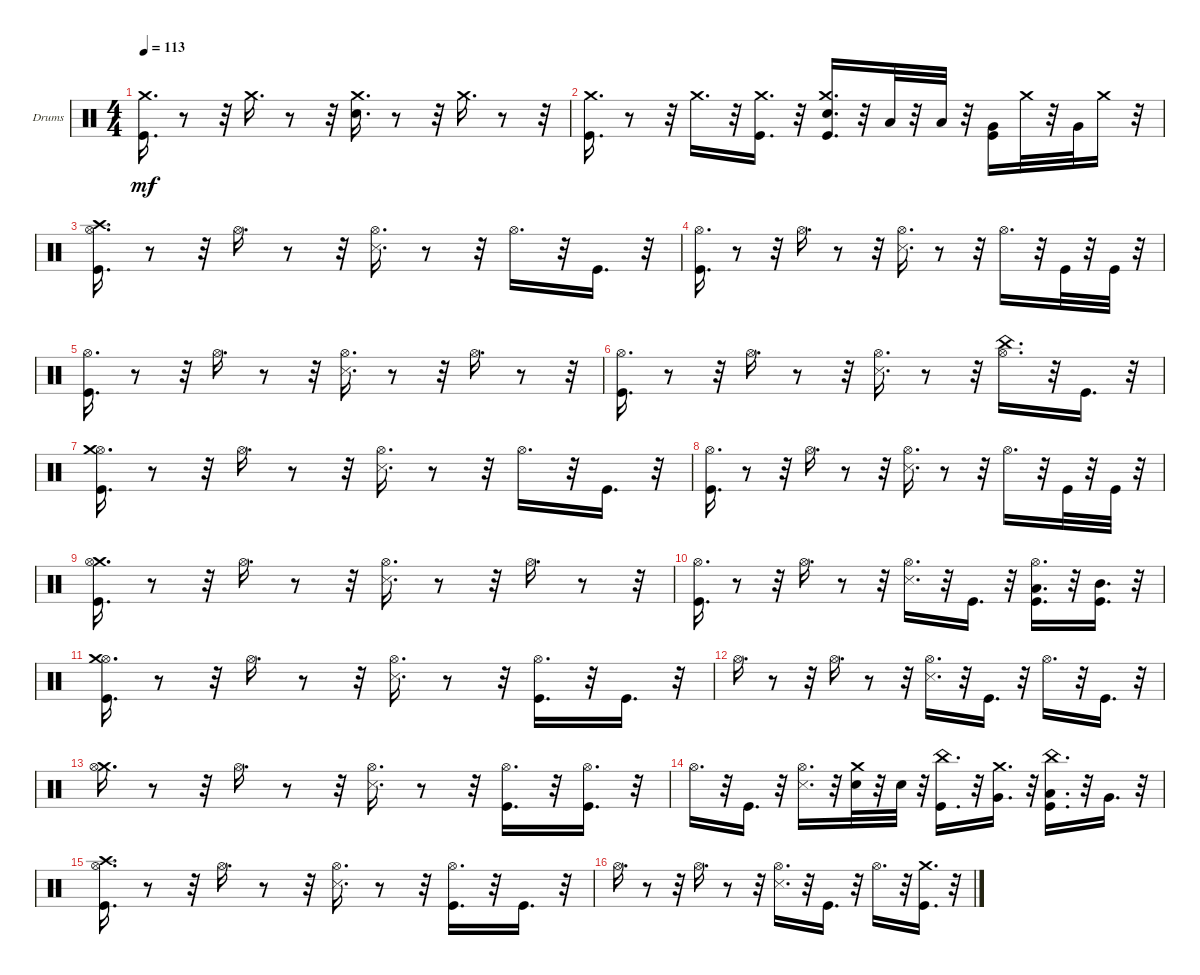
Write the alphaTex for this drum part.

\bracketExtendMode groupsimilarinstruments
\firstSystemTrackNameOrientation horizontal
\otherSystemsTrackNameOrientation horizontal
\track ("Drumkit" "Drums") {instrument percussion}
\staff {score}
\articulation defaults
\ts (4 4)
\tempo 113
\clef neutral
\ks c
("Kick (hit)" "Crash medium (hit)").16{d dy mf} r.8 r.32 "Crash medium (hit)".16{d} r.8 r.32 ("Snare (hit) 2" "Crash medium (hit)").16{d} r.8 r.32 "Crash medium (hit)".16{d} r.8 r.32 |
("Kick (hit)" "Crash medium (hit)").16{d} r.8 r.32 "Crash medium (hit)".16{d} r.32 ("Kick (hit)" "Crash medium (hit)").16{d} r.32 ("Snare (hit) 2" "Kick (hit)" "Crash medium (hit)").16{d} r.32 "Low Tom (hit)".32 r.32 "Low Tom (hit)".32 r.32 ("Very Low Tom (hit)" "Kick (hit)").16 "Crash medium (hit)".32 r.32 "Very Low Tom (hit)".32 "Crash medium (hit)".16 r.32 |
("Crash high (hit)" "Hi-Hat (open)" "Kick (hit)").16{d} r.8 r.32 "Hi-Hat (open)".16{d} r.8 r.32 ("Hi-Hat (open)" "Snare (side stick) 3").16{d} r.8 r.32 "Hi-Hat (open)".16{d} r.32 "Kick (hit)".16{d} r.32 |
("Hi-Hat (open)" "Kick (hit)").16{d} r.8 r.32 "Hi-Hat (open)".16{d} r.8 r.32 ("Hi-Hat (open)" "Snare (side stick) 3").16{d} r.8 r.32 "Hi-Hat (open)".16{d} r.32 "Kick (hit)".32 r.32 "Kick (hit)".32 r.32 |
("Hi-Hat (open)" "Kick (hit)").16{d} r.8 r.32 "Hi-Hat (open)".16{d} r.8 r.32 ("Hi-Hat (open)" "Snare (side stick) 3").16{d} r.8 r.32 "Hi-Hat (open)".16{d} r.8 r.32 |
("Hi-Hat (open)" "Kick (hit)").16{d} r.8 r.32 "Hi-Hat (open)".16{d} r.8 r.32 ("Hi-Hat (open)" "Snare (side stick) 3").16{d} r.8 r.32 ("China (hit)" "Hi-Hat (open)").16{d} r.32 "Kick (hit)".16{d} r.32 |
("Hi-Hat (open)" "Kick (hit)" "Crash medium (hit)").16{d} r.8 r.32 "Hi-Hat (open)".16{d} r.8 r.32 ("Hi-Hat (open)" "Snare (side stick) 3").16{d} r.8 r.32 "Hi-Hat (open)".16{d} r.32 "Kick (hit)".16{d} r.32 |
("Hi-Hat (open)" "Kick (hit)").16{d} r.8 r.32 "Hi-Hat (open)".16{d} r.8 r.32 ("Hi-Hat (open)" "Snare (side stick) 3").16{d} r.8 r.32 "Hi-Hat (open)".16{d} r.32 "Kick (hit)".32 r.32 "Kick (hit)".32 r.32 |
("Crash medium (hit)" "Hi-Hat (open)" "Kick (hit)").16{d} r.8 r.32 "Hi-Hat (open)".16{d} r.8 r.32 ("Hi-Hat (open)" "Snare (side stick) 3").16{d} r.8 r.32 "Hi-Hat (open)".16{d} r.8 r.32 |
("Hi-Hat (open)" "Kick (hit)").16{d} r.8 r.32 "Hi-Hat (open)".16{d} r.8 r.32 ("Hi-Hat (open)" "Snare (side stick) 3").16{d} r.32 "Kick (hit)".16{d} r.32 ("Low Tom (hit)" "Hi-Hat (open)" "Kick (hit)").16{d} r.32 ("Mid Tom (hit)" "Kick (hit)").16{d} r.32 |
("Kick (hit)" "Hi-Hat (open)" "Crash medium (hit)").16{d} r.8 r.32 "Hi-Hat (open)".16{d} r.8 r.32 ("Hi-Hat (open)" "Snare (side stick) 3").16{d} r.8 r.32 ("Hi-Hat (open)" "Kick (hit)").16{d} r.32 "Kick (hit)".16{d} r.32 |
"Hi-Hat (open)".16{d} r.8 r.32 "Hi-Hat (open)".16{d} r.8 r.32 ("Hi-Hat (open)" "Snare (side stick) 3").16{d} r.32 "Kick (hit)".16{d} r.32 "Hi-Hat (open)".16{d} r.32 "Kick (hit)".16{d} r.32 |
("Crash medium (hit)" "Hi-Hat (open)").16{d} r.8 r.32 "Hi-Hat (open)".16{d} r.8 r.32 ("Hi-Hat (open)" "Snare (side stick) 3").16{d} r.8 r.32 ("Hi-Hat (open)" "Kick (hit)").16{d} r.32 ("Hi-Hat (open)" "Kick (hit)").16{d} r.32 |
"Hi-Hat (open)".16{d} r.32 "Kick (hit)".16{d} r.32 ("Hi-Hat (open)" "Snare (side stick) 3").16{d} r.32 ("Crash medium (hit)" "Snare (hit) 2").32 r.32 "Snare (hit) 2".32 r.32 ("China (hit)" "Kick (hit)").16{d} r.32 ("Crash medium (hit)" "Very Low Tom (hit)").16{d} r.32 ("Low Tom (hit)" "China (hit)" "Kick (hit)").16{d} r.32 "Very Low Tom (hit)".16{d} r.32 |
("Crash high (hit)" "Hi-Hat (open)" "Kick (hit)").16{d} r.8 r.32 "Hi-Hat (open)".16{d} r.8 r.32 ("Hi-Hat (open)" "Snare (side stick) 3").16{d} r.8 r.32 ("Hi-Hat (open)" "Kick (hit)").16{d} r.32 "Kick (hit)".16{d} r.32 |
"Hi-Hat (open)".16{d} r.8 r.32 "Hi-Hat (open)".16{d} r.8 r.32 ("Hi-Hat (open)" "Snare (side stick) 3").16{d} r.32 "Kick (hit)".16{d} r.32 "Hi-Hat (open)".16{d} r.32 ("Kick (hit)" "Crash medium (hit)").16{d} r.32
